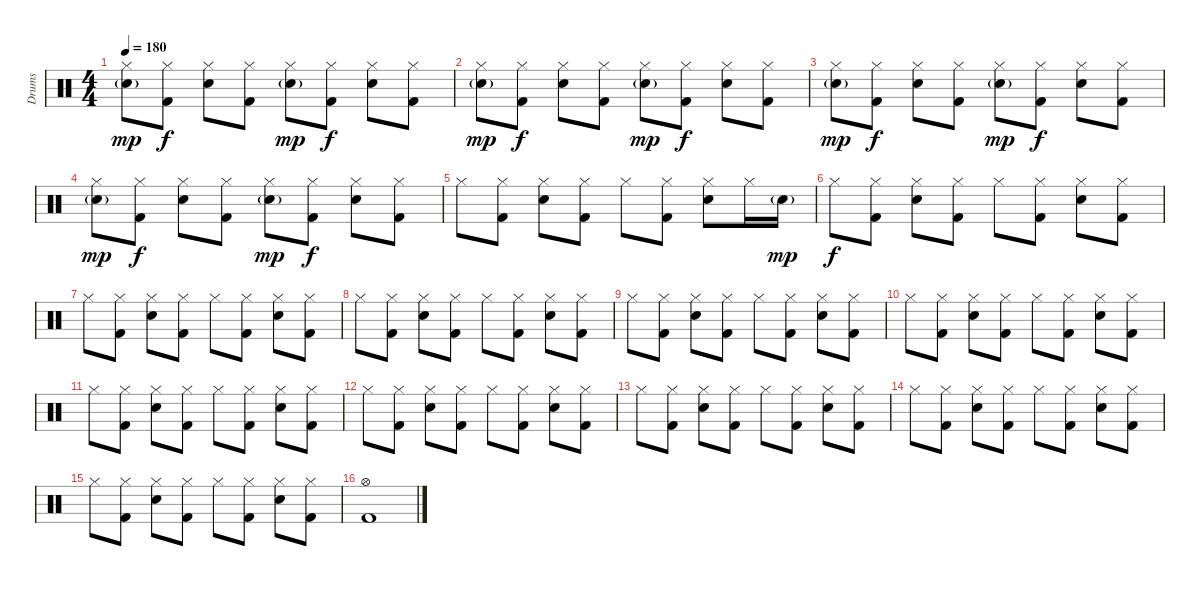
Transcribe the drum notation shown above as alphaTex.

\track ("Drums" "Drums") {instrument percussion}
\staff {score}
\articulation defaults
\ts (4 4)
\tempo 180
\clef neutral
\ks c
("Hi-Hat (closed)" "Electric Snare (hit)"{g}).8{dy mp} ("Hi-Hat (closed)" "Kick (hit) 2").8{dy f} ("Hi-Hat (closed)" "Electric Snare (hit)").8 ("Hi-Hat (closed)" "Kick (hit) 2").8 ("Hi-Hat (closed)" "Electric Snare (hit)"{g}).8{dy mp} ("Hi-Hat (closed)" "Kick (hit) 2").8{dy f} ("Hi-Hat (closed)" "Electric Snare (hit)").8 ("Hi-Hat (closed)" "Kick (hit) 2").8 |
("Hi-Hat (closed)" "Electric Snare (hit)"{g}).8{dy mp volume 12} ("Hi-Hat (closed)" "Kick (hit) 2").8{dy f} ("Hi-Hat (closed)" "Electric Snare (hit)").8 ("Hi-Hat (closed)" "Kick (hit) 2").8 ("Hi-Hat (closed)" "Electric Snare (hit)"{g}).8{dy mp} ("Hi-Hat (closed)" "Kick (hit) 2").8{dy f} ("Hi-Hat (closed)" "Electric Snare (hit)").8 ("Hi-Hat (closed)" "Kick (hit) 2").8 |
("Hi-Hat (closed)" "Electric Snare (hit)"{g}).8{dy mp} ("Hi-Hat (closed)" "Kick (hit) 2").8{dy f} ("Hi-Hat (closed)" "Electric Snare (hit)").8 ("Hi-Hat (closed)" "Kick (hit) 2").8 ("Hi-Hat (closed)" "Electric Snare (hit)"{g}).8{dy mp} ("Hi-Hat (closed)" "Kick (hit) 2").8{dy f} ("Hi-Hat (closed)" "Electric Snare (hit)").8 ("Hi-Hat (closed)" "Kick (hit) 2").8 |
("Hi-Hat (closed)" "Electric Snare (hit)"{g}).8{dy mp volume 11} ("Hi-Hat (closed)" "Kick (hit) 2").8{dy f} ("Hi-Hat (closed)" "Electric Snare (hit)").8 ("Hi-Hat (closed)" "Kick (hit) 2").8 ("Hi-Hat (closed)" "Electric Snare (hit)"{g}).8{dy mp} ("Hi-Hat (closed)" "Kick (hit) 2").8{dy f} ("Hi-Hat (closed)" "Electric Snare (hit)").8 ("Hi-Hat (closed)" "Kick (hit) 2").8 |
"Hi-Hat (closed)".8 ("Hi-Hat (closed)" "Kick (hit) 2").8 ("Hi-Hat (closed)" "Electric Snare (hit)").8 ("Hi-Hat (closed)" "Kick (hit) 2").8 "Hi-Hat (closed)".8 ("Hi-Hat (closed)" "Kick (hit) 2").8 ("Hi-Hat (closed)" "Electric Snare (hit)").8 "Hi-Hat (closed)".16 "Electric Snare (hit)"{g}.16{dy mp} |
"Hi-Hat (closed)".8{dy f volume 10} ("Hi-Hat (closed)" "Kick (hit) 2").8 ("Hi-Hat (closed)" "Electric Snare (hit)").8 ("Hi-Hat (closed)" "Kick (hit) 2").8 "Hi-Hat (closed)".8 ("Hi-Hat (closed)" "Kick (hit) 2").8 ("Hi-Hat (closed)" "Electric Snare (hit)").8 ("Hi-Hat (closed)" "Kick (hit) 2").8 |
"Hi-Hat (closed)".8 ("Hi-Hat (closed)" "Kick (hit) 2").8 ("Hi-Hat (closed)" "Electric Snare (hit)").8 ("Hi-Hat (closed)" "Kick (hit) 2").8 "Hi-Hat (closed)".8 ("Hi-Hat (closed)" "Kick (hit) 2").8 ("Hi-Hat (closed)" "Electric Snare (hit)").8 ("Hi-Hat (closed)" "Kick (hit) 2").8 |
"Hi-Hat (closed)".8{volume 9} ("Hi-Hat (closed)" "Kick (hit) 2").8 ("Hi-Hat (closed)" "Electric Snare (hit)").8 ("Hi-Hat (closed)" "Kick (hit) 2").8 "Hi-Hat (closed)".8 ("Hi-Hat (closed)" "Kick (hit) 2").8 ("Hi-Hat (closed)" "Electric Snare (hit)").8 ("Hi-Hat (closed)" "Kick (hit) 2").8 |
"Hi-Hat (closed)".8 ("Hi-Hat (closed)" "Kick (hit) 2").8 ("Hi-Hat (closed)" "Electric Snare (hit)").8 ("Hi-Hat (closed)" "Kick (hit) 2").8 "Hi-Hat (closed)".8 ("Hi-Hat (closed)" "Kick (hit) 2").8 ("Hi-Hat (closed)" "Electric Snare (hit)").8 ("Hi-Hat (closed)" "Kick (hit) 2").8 |
"Hi-Hat (closed)".8{volume 8} ("Hi-Hat (closed)" "Kick (hit) 2").8 ("Hi-Hat (closed)" "Electric Snare (hit)").8 ("Hi-Hat (closed)" "Kick (hit) 2").8 "Hi-Hat (closed)".8 ("Hi-Hat (closed)" "Kick (hit) 2").8 ("Hi-Hat (closed)" "Electric Snare (hit)").8 ("Hi-Hat (closed)" "Kick (hit) 2").8 |
"Hi-Hat (closed)".8 ("Hi-Hat (closed)" "Kick (hit) 2").8 ("Hi-Hat (closed)" "Electric Snare (hit)").8 ("Hi-Hat (closed)" "Kick (hit) 2").8 "Hi-Hat (closed)".8 ("Hi-Hat (closed)" "Kick (hit) 2").8 ("Hi-Hat (closed)" "Electric Snare (hit)").8 ("Hi-Hat (closed)" "Kick (hit) 2").8 |
"Hi-Hat (closed)".8{volume 7} ("Hi-Hat (closed)" "Kick (hit) 2").8 ("Hi-Hat (closed)" "Electric Snare (hit)").8 ("Hi-Hat (closed)" "Kick (hit) 2").8 "Hi-Hat (closed)".8 ("Hi-Hat (closed)" "Kick (hit) 2").8 ("Hi-Hat (closed)" "Electric Snare (hit)").8 ("Hi-Hat (closed)" "Kick (hit) 2").8 |
"Hi-Hat (closed)".8 ("Hi-Hat (closed)" "Kick (hit) 2").8 ("Hi-Hat (closed)" "Electric Snare (hit)").8 ("Hi-Hat (closed)" "Kick (hit) 2").8 "Hi-Hat (closed)".8 ("Hi-Hat (closed)" "Kick (hit) 2").8 ("Hi-Hat (closed)" "Electric Snare (hit)").8 ("Hi-Hat (closed)" "Kick (hit) 2").8 |
"Hi-Hat (closed)".8{volume 6} ("Hi-Hat (closed)" "Kick (hit) 2").8 ("Hi-Hat (closed)" "Electric Snare (hit)").8 ("Hi-Hat (closed)" "Kick (hit) 2").8 "Hi-Hat (closed)".8 ("Hi-Hat (closed)" "Kick (hit) 2").8 ("Hi-Hat (closed)" "Electric Snare (hit)").8 ("Hi-Hat (closed)" "Kick (hit) 2").8 |
"Hi-Hat (closed)".8 ("Hi-Hat (closed)" "Kick (hit) 2").8 ("Hi-Hat (closed)" "Electric Snare (hit)").8 ("Hi-Hat (closed)" "Kick (hit) 2").8 "Hi-Hat (closed)".8 ("Hi-Hat (closed)" "Kick (hit) 2").8 ("Hi-Hat (closed)" "Electric Snare (hit)").8 ("Hi-Hat (closed)" "Kick (hit) 2").8 |
("Hi-Hat (open)" "Kick (hit) 2").1
